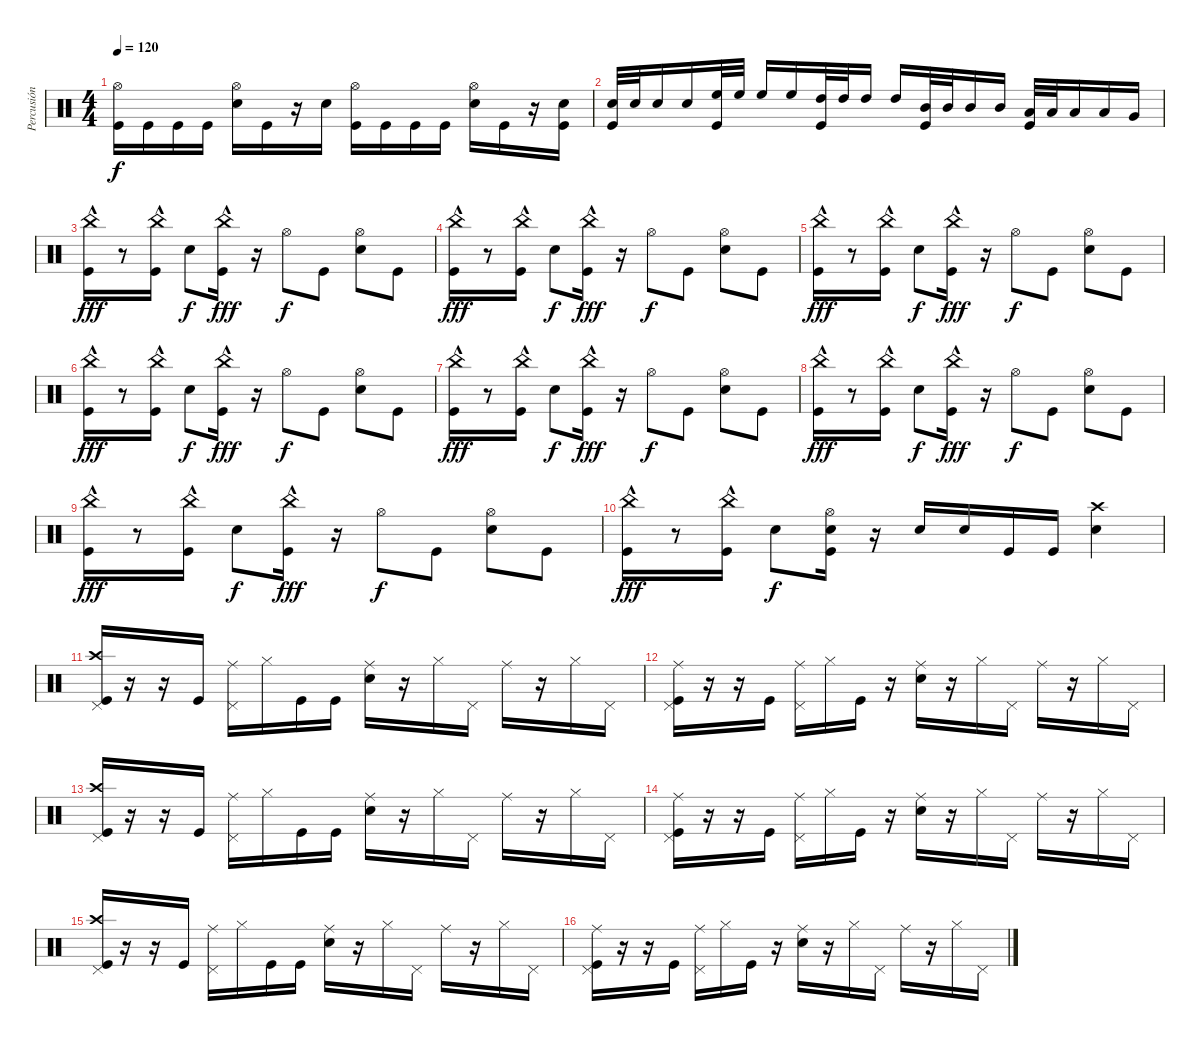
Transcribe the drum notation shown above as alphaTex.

\track ("Percusión" "Percusión") {instrument percussion}
\staff {score}
\articulation defaults
\ts (4 4)
\tempo 120
\clef neutral
\ks c
("Hi-Hat (open)" "Kick (hit)").16{dy f} "Kick (hit)".16 "Kick (hit)".16 "Kick (hit)".16 ("Hi-Hat (open)" "Snare (hit) 2").16 "Kick (hit)".16 r.16 "Snare (hit) 2".16 ("Hi-Hat (open)" "Kick (hit)").16 "Kick (hit)".16 "Kick (hit)".16 "Kick (hit)".16 ("Hi-Hat (open)" "Snare (hit) 2").16 "Kick (hit)".16 r.16 ("Snare (hit) 2" "Kick (hit)").16 |
("Snare (hit) 2" "Kick (hit)").32 "Snare (hit) 2".32 "Snare (hit) 2".16 "Snare (hit) 2".16 ("High Floor Tom (hit)" "Kick (hit)").32 "High Floor Tom (hit)".32 "High Floor Tom (hit)".16 "High Floor Tom (hit)".16 ("High Tom (hit)" "Kick (hit)").32 "High Tom (hit)".32 "High Tom (hit)".16 "High Tom (hit)".16 ("Mid Tom (hit)" "Kick (hit)").32 "Mid Tom (hit)".32 "Mid Tom (hit)".16 "Mid Tom (hit)".16 ("Low Tom (hit)" "Kick (hit)").32 "Low Tom (hit)".32 "Low Tom (hit)".16 "Low Tom (hit)".16 "Very Low Tom (hit)".16 |
("China (hit)"{hac} "Kick (hit)").16{dy fff} r.8 ("China (hit)"{hac} "Kick (hit)").16 "Snare (hit) 2".8{dy f} ("China (hit)"{hac} "Kick (hit)").16{dy fff} r.16 "Hi-Hat (open)".8{dy f} "Kick (hit)".8 ("Hi-Hat (open)" "Snare (hit) 2").8 "Kick (hit)".8 |
("China (hit)"{hac} "Kick (hit)").16{dy fff} r.8 ("China (hit)"{hac} "Kick (hit)").16 "Snare (hit) 2".8{dy f} ("China (hit)"{hac} "Kick (hit)").16{dy fff} r.16 "Hi-Hat (open)".8{dy f} "Kick (hit)".8 ("Hi-Hat (open)" "Snare (hit) 2").8 "Kick (hit)".8 |
("China (hit)"{hac} "Kick (hit)").16{dy fff} r.8 ("China (hit)"{hac} "Kick (hit)").16 "Snare (hit) 2".8{dy f} ("China (hit)"{hac} "Kick (hit)").16{dy fff} r.16 "Hi-Hat (open)".8{dy f} "Kick (hit)".8 ("Hi-Hat (open)" "Snare (hit) 2").8 "Kick (hit)".8 |
("China (hit)"{hac} "Kick (hit)").16{dy fff} r.8 ("China (hit)"{hac} "Kick (hit)").16 "Snare (hit) 2".8{dy f} ("China (hit)"{hac} "Kick (hit)").16{dy fff} r.16 "Hi-Hat (open)".8{dy f} "Kick (hit)".8 ("Hi-Hat (open)" "Snare (hit) 2").8 "Kick (hit)".8 |
("China (hit)"{hac} "Kick (hit)").16{dy fff} r.8 ("China (hit)"{hac} "Kick (hit)").16 "Snare (hit) 2".8{dy f} ("China (hit)"{hac} "Kick (hit)").16{dy fff} r.16 "Hi-Hat (open)".8{dy f} "Kick (hit)".8 ("Hi-Hat (open)" "Snare (hit) 2").8 "Kick (hit)".8 |
("China (hit)"{hac} "Kick (hit)").16{dy fff} r.8 ("China (hit)"{hac} "Kick (hit)").16 "Snare (hit) 2".8{dy f} ("China (hit)"{hac} "Kick (hit)").16{dy fff} r.16 "Hi-Hat (open)".8{dy f} "Kick (hit)".8 ("Hi-Hat (open)" "Snare (hit) 2").8 "Kick (hit)".8 |
("China (hit)"{hac} "Kick (hit)").16{dy fff} r.8 ("China (hit)"{hac} "Kick (hit)").16 "Snare (hit) 2".8{dy f} ("China (hit)"{hac} "Kick (hit)").16{dy fff} r.16 "Hi-Hat (open)".8{dy f} "Kick (hit)".8 ("Hi-Hat (open)" "Snare (hit) 2").8 "Kick (hit)".8 |
("China (hit)"{hac} "Kick (hit)").16{dy fff} r.8 ("China (hit)"{hac} "Kick (hit)").16 "Snare (hit) 2".8{dy f} ("Hi-Hat (open)" "Snare (hit) 2" "Kick (hit)").16 r.16 "Snare (hit) 2".16 "Snare (hit) 2".16 "Kick (hit)".16 "Kick (hit)".16 ("Crash high (hit)" "Snare (hit) 2").4 |
("Crash high (hit)" "Pedal Hi-Hat (hit)" "Kick (hit)").16 r.16 r.16 "Kick (hit)".16 ("Ride (middle)" "Pedal Hi-Hat (hit)").16 "Hi-Hat (closed)".16 "Kick (hit)".16 "Kick (hit)".16 ("Ride (middle)" "Snare (hit) 2").16 r.16 "Hi-Hat (closed)".16 "Pedal Hi-Hat (hit)".16 "Ride (middle)".16 r.16 "Hi-Hat (closed)".16 "Pedal Hi-Hat (hit)".16 |
("Ride (middle)" "Pedal Hi-Hat (hit)" "Kick (hit)").16 r.16 r.16 "Kick (hit)".16 ("Ride (middle)" "Pedal Hi-Hat (hit)").16 "Hi-Hat (closed)".16 "Kick (hit)".16 r.16 ("Ride (middle)" "Snare (hit) 2").16 r.16 "Hi-Hat (closed)".16 "Pedal Hi-Hat (hit)".16 "Ride (middle)".16 r.16 "Hi-Hat (closed)".16 "Pedal Hi-Hat (hit)".16 |
("Crash high (hit)" "Pedal Hi-Hat (hit)" "Kick (hit)").16 r.16 r.16 "Kick (hit)".16 ("Ride (middle)" "Pedal Hi-Hat (hit)").16 "Hi-Hat (closed)".16 "Kick (hit)".16 "Kick (hit)".16 ("Ride (middle)" "Snare (hit) 2").16 r.16 "Hi-Hat (closed)".16 "Pedal Hi-Hat (hit)".16 "Ride (middle)".16 r.16 "Hi-Hat (closed)".16 "Pedal Hi-Hat (hit)".16 |
("Ride (middle)" "Pedal Hi-Hat (hit)" "Kick (hit)").16 r.16 r.16 "Kick (hit)".16 ("Ride (middle)" "Pedal Hi-Hat (hit)").16 "Hi-Hat (closed)".16 "Kick (hit)".16 r.16 ("Ride (middle)" "Snare (hit) 2").16 r.16 "Hi-Hat (closed)".16 "Pedal Hi-Hat (hit)".16 "Ride (middle)".16 r.16 "Hi-Hat (closed)".16 "Pedal Hi-Hat (hit)".16 |
("Crash high (hit)" "Pedal Hi-Hat (hit)" "Kick (hit)").16 r.16 r.16 "Kick (hit)".16 ("Ride (middle)" "Pedal Hi-Hat (hit)").16 "Hi-Hat (closed)".16 "Kick (hit)".16 "Kick (hit)".16 ("Ride (middle)" "Snare (hit) 2").16 r.16 "Hi-Hat (closed)".16 "Pedal Hi-Hat (hit)".16 "Ride (middle)".16 r.16 "Hi-Hat (closed)".16 "Pedal Hi-Hat (hit)".16 |
("Ride (middle)" "Pedal Hi-Hat (hit)" "Kick (hit)").16 r.16 r.16 "Kick (hit)".16 ("Ride (middle)" "Pedal Hi-Hat (hit)").16 "Hi-Hat (closed)".16 "Kick (hit)".16 r.16 ("Ride (middle)" "Snare (hit) 2").16 r.16 "Hi-Hat (closed)".16 "Pedal Hi-Hat (hit)".16 "Ride (middle)".16 r.16 "Hi-Hat (closed)".16 "Pedal Hi-Hat (hit)".16
